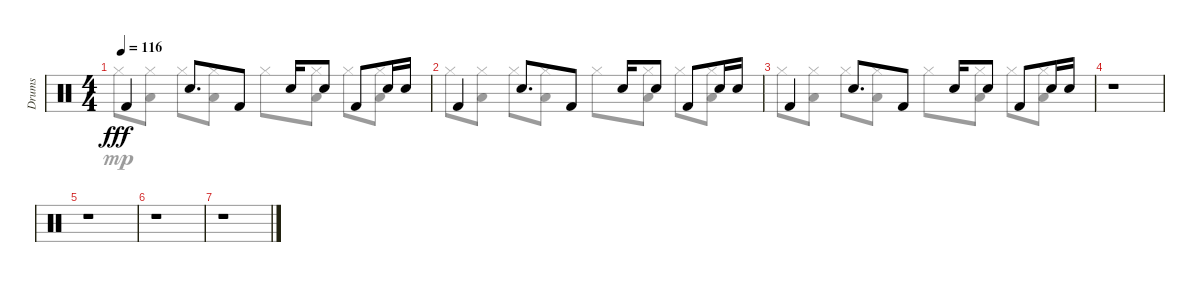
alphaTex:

\track ("Drums" "Drums") {instrument percussion}
\staff {score}
\articulation defaults
\voice
\ts (4 4)
\tempo 116
\clef neutral
\ks c "Kick (hit) 2".4{dy fff} "Electric Snare (hit)".8{d} "Kick (hit) 2".8 "Electric Snare (hit)".16 "Electric Snare (hit)".8 "Kick (hit) 2".8 "Electric Snare (hit)".16 "Electric Snare (hit)".16
|
"Kick (hit) 2".4 "Electric Snare (hit)".8{d} "Kick (hit) 2".8 "Electric Snare (hit)".16 "Electric Snare (hit)".8 "Kick (hit) 2".8 "Electric Snare (hit)".16 "Electric Snare (hit)".16 |
"Kick (hit) 2".4 "Electric Snare (hit)".8{d} "Kick (hit) 2".8 "Electric Snare (hit)".16 "Electric Snare (hit)".8 "Kick (hit) 2".8 "Electric Snare (hit)".16 "Electric Snare (hit)".16 |
r.1 |
r.1 |
r.1 |
r.1
\voice
\clef neutral
\ottava regular
\simile none
\ks c "Hi-Hat (closed)".8{dy mp}
("Hi-Hat (closed)" "Low Floor Tom (hit)").8 "Hi-Hat (closed)".8 ("Hi-Hat (closed)" "Low Floor Tom (hit)").8 "Hi-Hat (closed)".8 ("Hi-Hat (closed)" "Low Floor Tom (hit)").8 "Hi-Hat (closed)".8 ("Hi-Hat (closed)" "Low Floor Tom (hit)").8 |
"Hi-Hat (closed)".8 ("Hi-Hat (closed)" "Low Floor Tom (hit)").8 "Hi-Hat (closed)".8 ("Hi-Hat (closed)" "Low Floor Tom (hit)").8 "Hi-Hat (closed)".8 ("Hi-Hat (closed)" "Low Floor Tom (hit)").8 "Hi-Hat (closed)".8 ("Hi-Hat (closed)" "Low Floor Tom (hit)").8 |
"Hi-Hat (closed)".8 ("Hi-Hat (closed)" "Low Floor Tom (hit)").8 "Hi-Hat (closed)".8 ("Hi-Hat (closed)" "Low Floor Tom (hit)").8 "Hi-Hat (closed)".8 ("Hi-Hat (closed)" "Low Floor Tom (hit)").8 "Hi-Hat (closed)".8 ("Hi-Hat (closed)" "Low Floor Tom (hit)").8 |
|
|
|
